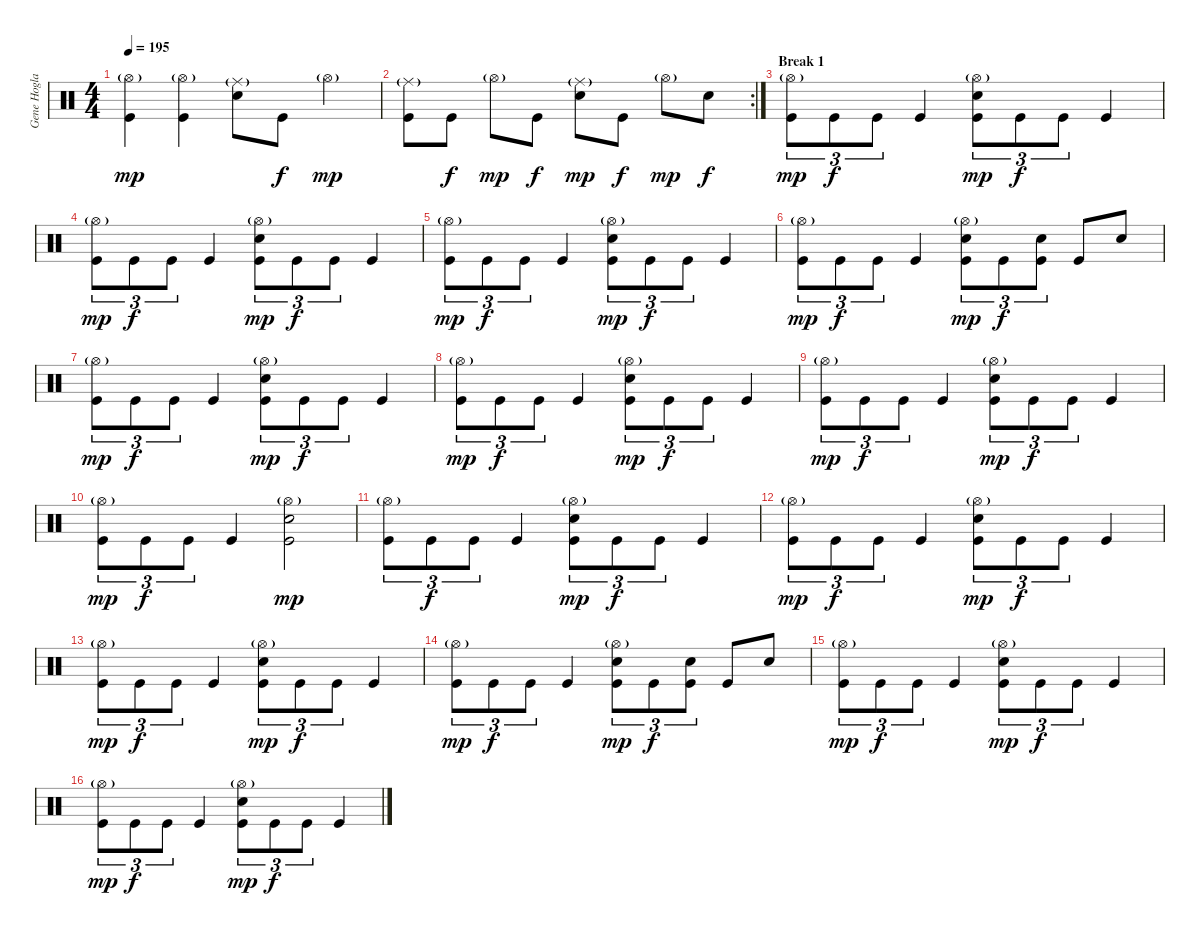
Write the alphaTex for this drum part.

\track ("Gene Hoglan" "Gene Hogla") {instrument percussion}
\staff {score}
\articulation defaults
\ts (4 4)
\tempo 195
\clef neutral
\ks c
("Hi-Hat (open)"{g} "Kick (hit)").4{dy mp} ("Hi-Hat (open)"{g} "Kick (hit)").4 ("Ride (middle)"{g} "Electric Snare (hit)").8 "Kick (hit)".8{dy f} "Hi-Hat (open)"{g}.4{dy mp} |
\rc 2
("Ride (middle)"{g} "Kick (hit)").8 "Kick (hit)".8{dy f} "Hi-Hat (open)"{g}.8{dy mp} "Kick (hit)".8{dy f} ("Ride (middle)"{g} "Electric Snare (hit)").8{dy mp} "Kick (hit)".8{dy f} "Hi-Hat (open)"{g}.8{dy mp} "Electric Snare (hit)".8{dy f} |
\section ("" "Break 1")
("Hi-Hat (open)"{g} "Kick (hit)").8{tu (3 2) dy mp} "Kick (hit)".8{tu (3 2) dy f} "Kick (hit)".8{tu (3 2)} "Kick (hit)".4 ("Hi-Hat (open)"{g} "Electric Snare (hit)" "Kick (hit)").8{tu (3 2) dy mp} "Kick (hit)".8{tu (3 2) dy f} "Kick (hit)".8{tu (3 2)} "Kick (hit)".4 |
("Hi-Hat (open)"{g} "Kick (hit)").8{tu (3 2) dy mp} "Kick (hit)".8{tu (3 2) dy f} "Kick (hit)".8{tu (3 2)} "Kick (hit)".4 ("Hi-Hat (open)"{g} "Electric Snare (hit)" "Kick (hit)").8{tu (3 2) dy mp} "Kick (hit)".8{tu (3 2) dy f} "Kick (hit)".8{tu (3 2)} "Kick (hit)".4 |
("Hi-Hat (open)"{g} "Kick (hit)").8{tu (3 2) dy mp} "Kick (hit)".8{tu (3 2) dy f} "Kick (hit)".8{tu (3 2)} "Kick (hit)".4 ("Hi-Hat (open)"{g} "Electric Snare (hit)" "Kick (hit)").8{tu (3 2) dy mp} "Kick (hit)".8{tu (3 2) dy f} "Kick (hit)".8{tu (3 2)} "Kick (hit)".4 |
("Hi-Hat (open)"{g} "Kick (hit)").8{tu (3 2) dy mp} "Kick (hit)".8{tu (3 2) dy f} "Kick (hit)".8{tu (3 2)} "Kick (hit)".4 ("Hi-Hat (open)"{g} "Electric Snare (hit)" "Kick (hit)").8{tu (3 2) dy mp} "Kick (hit)".8{tu (3 2) dy f} ("Electric Snare (hit)" "Kick (hit)").8{tu (3 2)} "Kick (hit)".8 "Electric Snare (hit)".8 |
("Hi-Hat (open)"{g} "Kick (hit)").8{tu (3 2) dy mp} "Kick (hit)".8{tu (3 2) dy f} "Kick (hit)".8{tu (3 2)} "Kick (hit)".4 ("Hi-Hat (open)"{g} "Electric Snare (hit)" "Kick (hit)").8{tu (3 2) dy mp} "Kick (hit)".8{tu (3 2) dy f} "Kick (hit)".8{tu (3 2)} "Kick (hit)".4 |
("Hi-Hat (open)"{g} "Kick (hit)").8{tu (3 2) dy mp} "Kick (hit)".8{tu (3 2) dy f} "Kick (hit)".8{tu (3 2)} "Kick (hit)".4 ("Hi-Hat (open)"{g} "Electric Snare (hit)" "Kick (hit)").8{tu (3 2) dy mp} "Kick (hit)".8{tu (3 2) dy f} "Kick (hit)".8{tu (3 2)} "Kick (hit)".4 |
("Hi-Hat (open)"{g} "Kick (hit)").8{tu (3 2) dy mp} "Kick (hit)".8{tu (3 2) dy f} "Kick (hit)".8{tu (3 2)} "Kick (hit)".4 ("Hi-Hat (open)"{g} "Electric Snare (hit)" "Kick (hit)").8{tu (3 2) dy mp} "Kick (hit)".8{tu (3 2) dy f} "Kick (hit)".8{tu (3 2)} "Kick (hit)".4 |
("Hi-Hat (open)"{g} "Kick (hit)").8{tu (3 2) dy mp} "Kick (hit)".8{tu (3 2) dy f} "Kick (hit)".8{tu (3 2)} "Kick (hit)".4 ("Hi-Hat (open)"{g} "Electric Snare (hit)" "Kick (hit)").2{dy mp} |
("Hi-Hat (open)"{g} "Kick (hit)").8{tu (3 2)} "Kick (hit)".8{tu (3 2) dy f} "Kick (hit)".8{tu (3 2)} "Kick (hit)".4 ("Hi-Hat (open)"{g} "Electric Snare (hit)" "Kick (hit)").8{tu (3 2) dy mp} "Kick (hit)".8{tu (3 2) dy f} "Kick (hit)".8{tu (3 2)} "Kick (hit)".4 |
("Hi-Hat (open)"{g} "Kick (hit)").8{tu (3 2) dy mp} "Kick (hit)".8{tu (3 2) dy f} "Kick (hit)".8{tu (3 2)} "Kick (hit)".4 ("Hi-Hat (open)"{g} "Electric Snare (hit)" "Kick (hit)").8{tu (3 2) dy mp} "Kick (hit)".8{tu (3 2) dy f} "Kick (hit)".8{tu (3 2)} "Kick (hit)".4 |
("Hi-Hat (open)"{g} "Kick (hit)").8{tu (3 2) dy mp} "Kick (hit)".8{tu (3 2) dy f} "Kick (hit)".8{tu (3 2)} "Kick (hit)".4 ("Hi-Hat (open)"{g} "Electric Snare (hit)" "Kick (hit)").8{tu (3 2) dy mp} "Kick (hit)".8{tu (3 2) dy f} "Kick (hit)".8{tu (3 2)} "Kick (hit)".4 |
("Hi-Hat (open)"{g} "Kick (hit)").8{tu (3 2) dy mp} "Kick (hit)".8{tu (3 2) dy f} "Kick (hit)".8{tu (3 2)} "Kick (hit)".4 ("Hi-Hat (open)"{g} "Electric Snare (hit)" "Kick (hit)").8{tu (3 2) dy mp} "Kick (hit)".8{tu (3 2) dy f} ("Electric Snare (hit)" "Kick (hit)").8{tu (3 2)} "Kick (hit)".8 "Electric Snare (hit)".8 |
("Hi-Hat (open)"{g} "Kick (hit)").8{tu (3 2) dy mp} "Kick (hit)".8{tu (3 2) dy f} "Kick (hit)".8{tu (3 2)} "Kick (hit)".4 ("Hi-Hat (open)"{g} "Electric Snare (hit)" "Kick (hit)").8{tu (3 2) dy mp} "Kick (hit)".8{tu (3 2) dy f} "Kick (hit)".8{tu (3 2)} "Kick (hit)".4 |
("Hi-Hat (open)"{g} "Kick (hit)").8{tu (3 2) dy mp} "Kick (hit)".8{tu (3 2) dy f} "Kick (hit)".8{tu (3 2)} "Kick (hit)".4 ("Hi-Hat (open)"{g} "Electric Snare (hit)" "Kick (hit)").8{tu (3 2) dy mp} "Kick (hit)".8{tu (3 2) dy f} "Kick (hit)".8{tu (3 2)} "Kick (hit)".4
